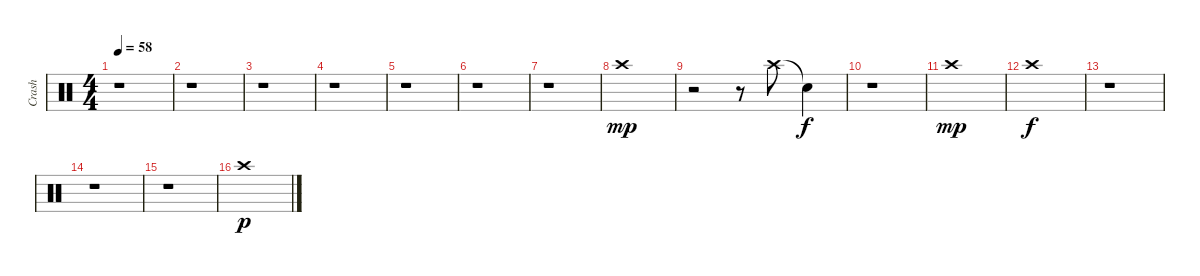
\track ("Crash" "Crash") {instrument percussion}
\staff {score}
\articulation defaults
\ts (4 4)
\tempo 58
\clef neutral
\ks c
r.1{dy mp} |
r.1 |
r.1 |
r.1 |
r.1 |
r.1 |
r.1 |
"Crash high (hit)".1 |
r.2 r.8 "Crash high (hit)".8 "Snare (hit)"{t}.4{dy f} |
r.1 |
"Crash high (hit)".1{dy mp} |
"Crash high (hit)".1{dy f} |
r.1 |
r.1 |
r.1 |
"Crash high (hit)".1{dy p}
